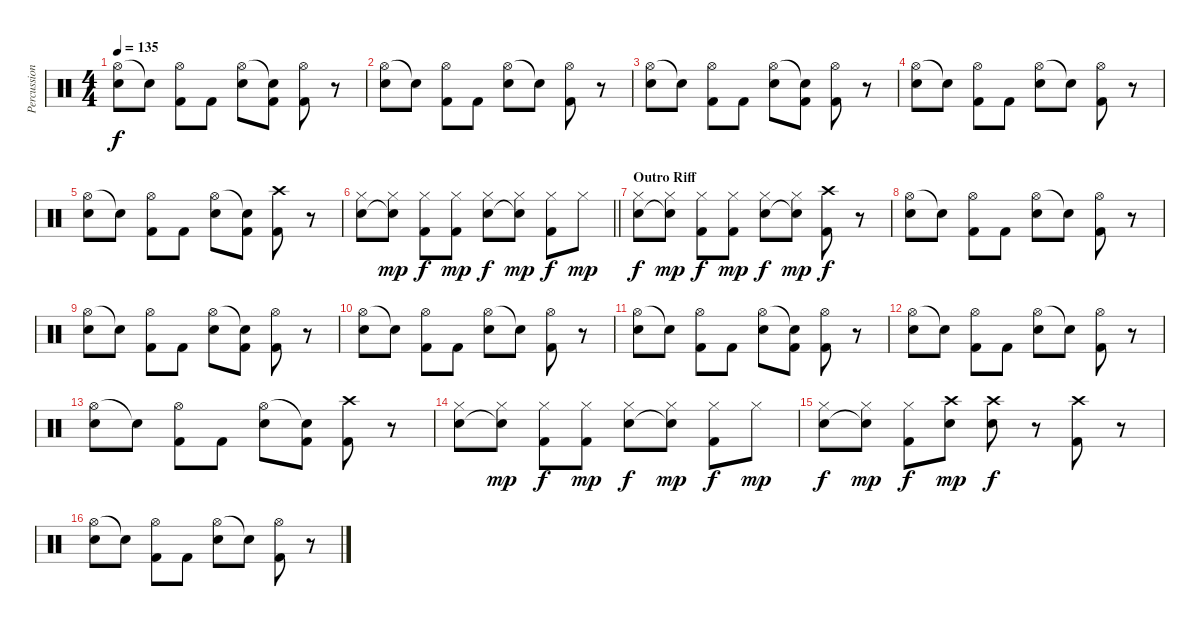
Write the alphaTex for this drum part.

\track ("Percussion" "Percussion") {instrument percussion}
\staff {score}
\articulation defaults
\ts (4 4)
\tempo 135
\clef neutral
\ks c
("Hi-Hat (open)" "Electric Snare (hit)").8{dy f} "Electric Snare (hit)"{t}.8 ("Hi-Hat (open)" "Kick (hit) 2").8 "Kick (hit) 2".8 ("Hi-Hat (open)" "Electric Snare (hit)").8 ("Electric Snare (hit)"{t} "Kick (hit) 2").8 ("Hi-Hat (open)" "Kick (hit) 2").8 r.8 |
("Hi-Hat (open)" "Electric Snare (hit)").8 "Electric Snare (hit)"{t}.8 ("Hi-Hat (open)" "Kick (hit) 2").8 "Kick (hit) 2".8 ("Hi-Hat (open)" "Electric Snare (hit)").8 "Electric Snare (hit)"{t}.8 ("Hi-Hat (open)" "Kick (hit) 2").8 r.8 |
("Hi-Hat (open)" "Electric Snare (hit)").8 "Electric Snare (hit)"{t}.8 ("Hi-Hat (open)" "Kick (hit) 2").8 "Kick (hit) 2".8 ("Hi-Hat (open)" "Electric Snare (hit)").8 ("Electric Snare (hit)"{t} "Kick (hit) 2").8 ("Hi-Hat (open)" "Kick (hit) 2").8 r.8 |
("Hi-Hat (open)" "Electric Snare (hit)").8 "Electric Snare (hit)"{t}.8 ("Hi-Hat (open)" "Kick (hit) 2").8 "Kick (hit) 2".8 ("Hi-Hat (open)" "Electric Snare (hit)").8 "Electric Snare (hit)"{t}.8 ("Hi-Hat (open)" "Kick (hit) 2").8 r.8 |
("Hi-Hat (open)" "Electric Snare (hit)").8 "Electric Snare (hit)"{t}.8 ("Hi-Hat (open)" "Kick (hit) 2").8 "Kick (hit) 2".8 ("Hi-Hat (open)" "Electric Snare (hit)").8 ("Electric Snare (hit)"{t} "Kick (hit) 2").8 ("Crash high (hit)" "Kick (hit) 2").8 r.8 |
\barLineRight lightlight
("Hi-Hat (closed)" "Electric Snare (hit)").8 ("Hi-Hat (closed)" "Electric Snare (hit)"{t}).8{dy mp} ("Hi-Hat (closed)" "Kick (hit) 2").8{dy f} ("Hi-Hat (closed)" "Kick (hit) 2").8{dy mp} ("Hi-Hat (closed)" "Electric Snare (hit)").8{dy f} ("Hi-Hat (closed)" "Electric Snare (hit)"{t}).8{dy mp} ("Hi-Hat (closed)" "Kick (hit) 2").8{dy f} "Hi-Hat (closed)".8{dy mp} |
\section ("" "Outro Riff")
("Hi-Hat (closed)" "Electric Snare (hit)").8{dy f} ("Hi-Hat (closed)" "Electric Snare (hit)"{t}).8{dy mp} ("Hi-Hat (closed)" "Kick (hit) 2").8{dy f} ("Hi-Hat (closed)" "Kick (hit) 2").8{dy mp} ("Hi-Hat (closed)" "Electric Snare (hit)").8{dy f} ("Hi-Hat (closed)" "Electric Snare (hit)"{t}).8{dy mp} ("Crash high (hit)" "Kick (hit) 2").8{dy f} r.8 |
("Hi-Hat (open)" "Electric Snare (hit)").8 "Electric Snare (hit)"{t}.8 ("Hi-Hat (open)" "Kick (hit) 2").8 "Kick (hit) 2".8 ("Hi-Hat (open)" "Electric Snare (hit)").8 "Electric Snare (hit)"{t}.8 ("Hi-Hat (open)" "Kick (hit) 2").8 r.8 |
("Hi-Hat (open)" "Electric Snare (hit)").8 "Electric Snare (hit)"{t}.8 ("Hi-Hat (open)" "Kick (hit) 2").8 "Kick (hit) 2".8 ("Hi-Hat (open)" "Electric Snare (hit)").8 ("Electric Snare (hit)"{t} "Kick (hit) 2").8 ("Hi-Hat (open)" "Kick (hit) 2").8 r.8 |
("Hi-Hat (open)" "Electric Snare (hit)").8 "Electric Snare (hit)"{t}.8 ("Hi-Hat (open)" "Kick (hit) 2").8 "Kick (hit) 2".8 ("Hi-Hat (open)" "Electric Snare (hit)").8 "Electric Snare (hit)"{t}.8 ("Hi-Hat (open)" "Kick (hit) 2").8 r.8 |
("Hi-Hat (open)" "Electric Snare (hit)").8 "Electric Snare (hit)"{t}.8 ("Hi-Hat (open)" "Kick (hit) 2").8 "Kick (hit) 2".8 ("Hi-Hat (open)" "Electric Snare (hit)").8 ("Electric Snare (hit)"{t} "Kick (hit) 2").8 ("Hi-Hat (open)" "Kick (hit) 2").8 r.8 |
("Hi-Hat (open)" "Electric Snare (hit)").8 "Electric Snare (hit)"{t}.8 ("Hi-Hat (open)" "Kick (hit) 2").8 "Kick (hit) 2".8 ("Hi-Hat (open)" "Electric Snare (hit)").8 "Electric Snare (hit)"{t}.8 ("Hi-Hat (open)" "Kick (hit) 2").8 r.8 |
("Hi-Hat (open)" "Electric Snare (hit)").8 "Electric Snare (hit)"{t}.8 ("Hi-Hat (open)" "Kick (hit) 2").8 "Kick (hit) 2".8 ("Hi-Hat (open)" "Electric Snare (hit)").8 ("Electric Snare (hit)"{t} "Kick (hit) 2").8 ("Crash high (hit)" "Kick (hit) 2").8 r.8 |
("Hi-Hat (closed)" "Electric Snare (hit)").8 ("Hi-Hat (closed)" "Electric Snare (hit)"{t}).8{dy mp} ("Hi-Hat (closed)" "Kick (hit) 2").8{dy f} ("Hi-Hat (closed)" "Kick (hit) 2").8{dy mp} ("Hi-Hat (closed)" "Electric Snare (hit)").8{dy f} ("Hi-Hat (closed)" "Electric Snare (hit)"{t}).8{dy mp} ("Hi-Hat (closed)" "Kick (hit) 2").8{dy f} "Hi-Hat (closed)".8{dy mp} |
("Hi-Hat (closed)" "Electric Snare (hit)").8{dy f} ("Hi-Hat (closed)" "Electric Snare (hit)"{t}).8{dy mp} ("Hi-Hat (closed)" "Kick (hit) 2").8{dy f} ("Crash high (hit)" "Electric Snare (hit)").8{dy mp} ("Crash high (hit)" "Electric Snare (hit)").8{dy f} r.8 ("Crash high (hit)" "Kick (hit) 2").8 r.8 |
("Hi-Hat (open)" "Electric Snare (hit)").8 "Electric Snare (hit)"{t}.8 ("Hi-Hat (open)" "Kick (hit) 2").8 "Kick (hit) 2".8 ("Hi-Hat (open)" "Electric Snare (hit)").8 "Electric Snare (hit)"{t}.8 ("Hi-Hat (open)" "Kick (hit) 2").8 r.8
